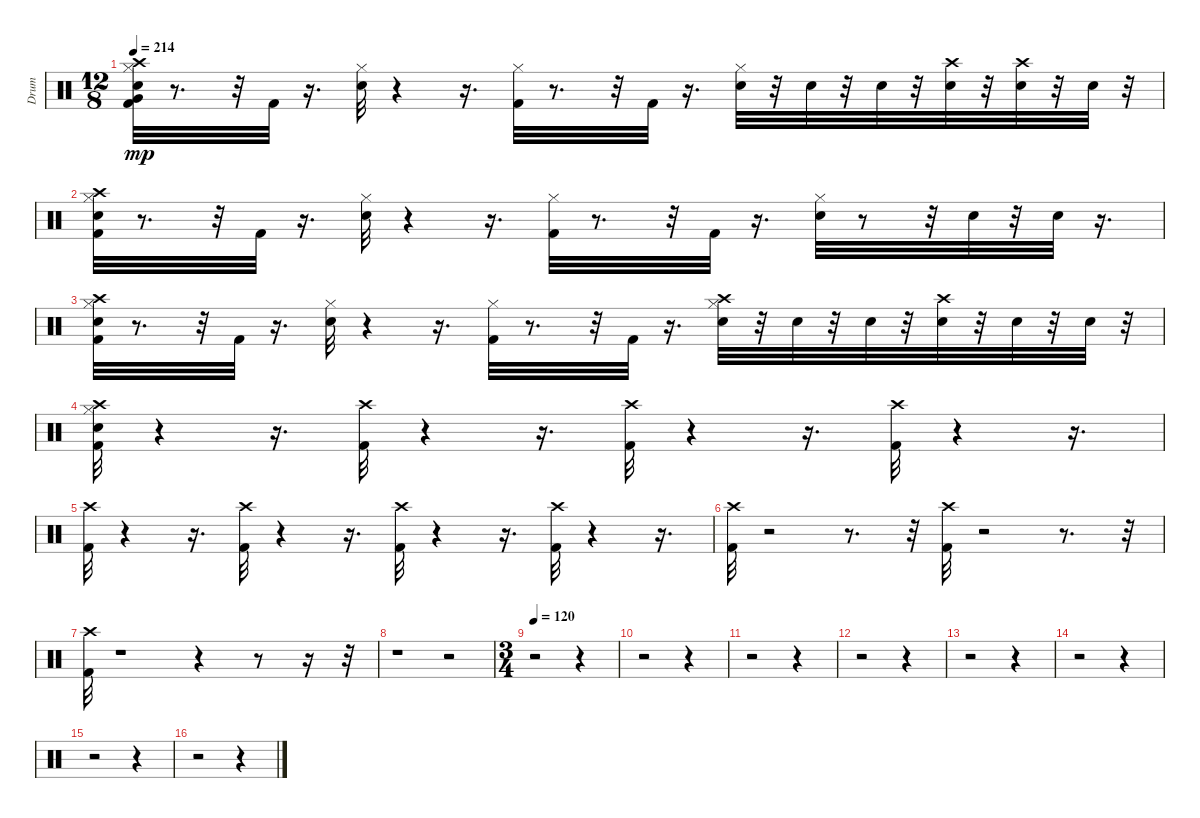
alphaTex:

\track ("Drum" "Drum") {instrument percussion}
\staff {score}
\articulation defaults
\ts (12 8)
\tempo 214
\clef neutral
\ks c
("Hi-Hat (closed)" "Very Low Tom (hit)" "Snare (hit) 2" "Crash high (hit)" "Kick (hit) 2").32{dy mp} r.8{d} r.32 "Kick (hit) 2".32 r.16{d} ("Hi-Hat (closed)" "Snare (hit) 2").32 r.4 r.16{d} ("Hi-Hat (closed)" "Kick (hit) 2").32 r.8{d} r.32 "Kick (hit) 2".32 r.16{d} ("Hi-Hat (closed)" "Snare (hit) 2").32 r.32 "Electric Snare (hit)".32 r.32 "Snare (hit) 2".32 r.32 ("Electric Snare (hit)" "Crash high (hit)").32 r.32 ("Snare (hit) 2" "Crash high (hit)").32 r.32 "Electric Snare (hit)".32 r.32 |
("Hi-Hat (closed)" "Snare (hit) 2" "Crash high (hit)" "Kick (hit) 2").32 r.8{d} r.32 "Kick (hit) 2".32 r.16{d} ("Hi-Hat (closed)" "Snare (hit) 2").32 r.4 r.16{d} ("Hi-Hat (closed)" "Kick (hit) 2").32 r.8{d} r.32 "Kick (hit) 2".32 r.16{d} ("Hi-Hat (closed)" "Snare (hit) 2").32 r.8 r.32 "Snare (hit) 2".32 r.32 "Snare (hit) 2".32 r.16{d} |
("Snare (hit) 2" "Hi-Hat (closed)" "Crash high (hit)" "Kick (hit) 2").32 r.8{d} r.32 "Kick (hit) 2".32 r.16{d} ("Hi-Hat (closed)" "Electric Snare (hit)").32 r.4 r.16{d} ("Hi-Hat (closed)" "Kick (hit) 2").32 r.8{d} r.32 "Kick (hit) 2".32 r.16{d} ("Hi-Hat (closed)" "Snare (hit) 2" "Crash high (hit)").32 r.32 "Electric Snare (hit)".32 r.32 "Snare (hit) 2".32 r.32 ("Crash high (hit)" "Electric Snare (hit)").32 r.32 "Snare (hit) 2".32 r.32 "Electric Snare (hit)".32 r.32 |
("Snare (hit) 2" "Hi-Hat (closed)" "Crash high (hit)" "Kick (hit) 2").32 r.4 r.16{d} ("Crash high (hit)" "Kick (hit) 2").32 r.4 r.16{d} ("Crash high (hit)" "Kick (hit) 2").32 r.4 r.16{d} ("Crash high (hit)" "Kick (hit) 2").32 r.4 r.16{d} |
("Crash high (hit)" "Kick (hit) 2").32 r.4 r.16{d} ("Crash high (hit)" "Kick (hit) 2").32 r.4 r.16{d} ("Crash high (hit)" "Kick (hit) 2").32 r.4 r.16{d} ("Crash high (hit)" "Kick (hit) 2").32 r.4 r.16{d} |
("Crash high (hit)" "Kick (hit) 2").32 r.2 r.8{d} r.32 ("Crash high (hit)" "Kick (hit) 2").32 r.2 r.8{d} r.32 |
("Crash high (hit)" "Kick (hit) 2").32 r.1 r.4 r.8 r.16 r.32 |
r.1 r.2 |
\ts (3 4)
\tempo 120
r.2 r.4 |
r.2 r.4 |
r.2 r.4 |
r.2 r.4 |
r.2 r.4 |
r.2 r.4 |
r.2 r.4 |
r.2 r.4
